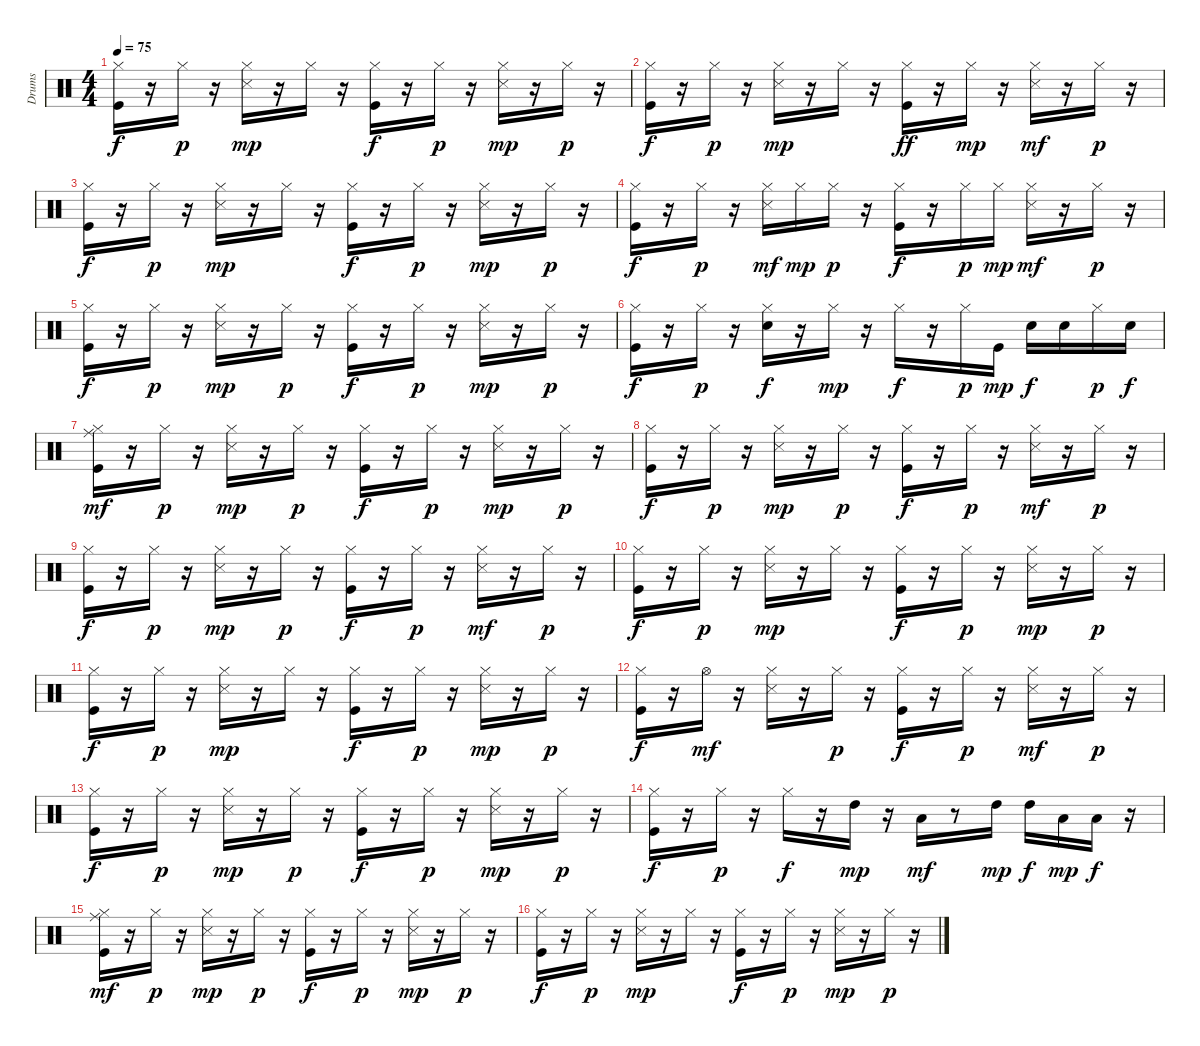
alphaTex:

\track ("Drums   " "Drums   ") {instrument percussion}
\staff {score}
\articulation defaults
\ts (4 4)
\tempo 75
\clef neutral
\ks c
("Kick (hit)" "Hi-Hat (closed)").16{dy f} r.16 "Hi-Hat (closed)".16{dy p} r.16 ("Hi-Hat (closed)" "Snare (side stick) 3").16{dy mp} r.16 "Hi-Hat (closed)".16 r.16 ("Kick (hit)" "Hi-Hat (closed)").16{dy f} r.16 "Hi-Hat (closed)".16{dy p} r.16 ("Hi-Hat (closed)" "Snare (side stick) 3").16{dy mp} r.16 "Hi-Hat (closed)".16{dy p} r.16 |
("Kick (hit)" "Hi-Hat (closed)").16{dy f} r.16 "Hi-Hat (closed)".16{dy p} r.16 ("Hi-Hat (closed)" "Snare (side stick) 3").16{dy mp} r.16 "Hi-Hat (closed)".16 r.16 ("Kick (hit)" "Hi-Hat (closed)").16{dy ff} r.16 "Hi-Hat (closed)".16{dy mp} r.16 ("Hi-Hat (closed)" "Snare (side stick) 3").16{dy mf} r.16 "Hi-Hat (closed)".16{dy p} r.16 |
("Kick (hit)" "Hi-Hat (closed)").16{dy f} r.16 "Hi-Hat (closed)".16{dy p} r.16 ("Hi-Hat (closed)" "Snare (side stick) 3").16{dy mp} r.16 "Hi-Hat (closed)".16 r.16 ("Kick (hit)" "Hi-Hat (closed)").16{dy f} r.16 "Hi-Hat (closed)".16{dy p} r.16 ("Hi-Hat (closed)" "Snare (side stick) 3").16{dy mp} r.16 "Hi-Hat (closed)".16{dy p} r.16 |
("Kick (hit)" "Hi-Hat (closed)").16{dy f} r.16 "Hi-Hat (closed)".16{dy p} r.16 ("Hi-Hat (closed)" "Snare (side stick) 3").16{dy mf} "Hi-Hat (closed)".16{dy mp} "Hi-Hat (closed)".16{dy p} r.16 ("Kick (hit)" "Hi-Hat (closed)").16{dy f} r.16 "Hi-Hat (closed)".16{dy p} "Hi-Hat (closed)".16{dy mp} ("Hi-Hat (closed)" "Snare (side stick) 3").16{dy mf} r.16 "Hi-Hat (closed)".16{dy p} r.16 |
("Kick (hit)" "Hi-Hat (closed)").16{dy f} r.16 "Hi-Hat (closed)".16{dy p} r.16 ("Hi-Hat (closed)" "Snare (side stick) 3").16{dy mp} r.16 "Hi-Hat (closed)".16{dy p} r.16 ("Kick (hit)" "Hi-Hat (closed)").16{dy f} r.16 "Hi-Hat (closed)".16{dy p} r.16 ("Hi-Hat (closed)" "Snare (side stick) 3").16{dy mp} r.16 "Hi-Hat (closed)".16{dy p} r.16 |
("Kick (hit)" "Hi-Hat (closed)").16{dy f} r.16 "Hi-Hat (closed)".16{dy p} r.16 ("Snare (hit) 2" "Hi-Hat (closed)").16{dy f} r.16 "Hi-Hat (closed)".16{dy mp} r.16 "Hi-Hat (closed)".16{dy f} r.16 "Hi-Hat (closed)".16{dy p} "Kick (hit)".16{dy mp} "Snare (hit) 2".16{dy f} "Snare (hit) 2".16 "Hi-Hat (closed)".16{dy p} "Snare (hit) 2".16{dy f} |
("Kick (hit)" "Hi-Hat (closed)" "Ride (middle)").16{dy mf} r.16 "Hi-Hat (closed)".16{dy p} r.16 ("Hi-Hat (closed)" "Snare (side stick) 3").16{dy mp} r.16 "Hi-Hat (closed)".16{dy p} r.16 ("Kick (hit)" "Hi-Hat (closed)").16{dy f} r.16 "Hi-Hat (closed)".16{dy p} r.16 ("Hi-Hat (closed)" "Snare (side stick) 3").16{dy mp} r.16 "Hi-Hat (closed)".16{dy p} r.16 |
("Kick (hit)" "Hi-Hat (closed)").16{dy f} r.16 "Hi-Hat (closed)".16{dy p} r.16 ("Hi-Hat (closed)" "Snare (side stick) 3").16{dy mp} r.16 "Hi-Hat (closed)".16{dy p} r.16 ("Kick (hit)" "Hi-Hat (closed)").16{dy f} r.16 "Hi-Hat (closed)".16{dy p} r.16 ("Hi-Hat (closed)" "Snare (side stick) 3").16{dy mf} r.16 "Hi-Hat (closed)".16{dy p} r.16 |
("Kick (hit)" "Hi-Hat (closed)").16{dy f} r.16 "Hi-Hat (closed)".16{dy p} r.16 ("Hi-Hat (closed)" "Snare (side stick) 3").16{dy mp} r.16 "Hi-Hat (closed)".16{dy p} r.16 ("Kick (hit)" "Hi-Hat (closed)").16{dy f} r.16 "Hi-Hat (closed)".16{dy p} r.16 ("Hi-Hat (closed)" "Snare (side stick) 3").16{dy mf} r.16 "Hi-Hat (closed)".16{dy p} r.16 |
("Kick (hit)" "Hi-Hat (closed)").16{dy f} r.16 "Hi-Hat (closed)".16{dy p} r.16 ("Hi-Hat (closed)" "Snare (side stick) 3").16{dy mp} r.16 "Hi-Hat (closed)".16 r.16 ("Kick (hit)" "Hi-Hat (closed)").16{dy f} r.16 "Hi-Hat (closed)".16{dy p} r.16 ("Hi-Hat (closed)" "Snare (side stick) 3").16{dy mp} r.16 "Hi-Hat (closed)".16{dy p} r.16 |
("Kick (hit)" "Hi-Hat (closed)").16{dy f} r.16 "Hi-Hat (closed)".16{dy p} r.16 ("Hi-Hat (closed)" "Snare (side stick) 3").16{dy mp} r.16 "Hi-Hat (closed)".16 r.16 ("Kick (hit)" "Hi-Hat (closed)").16{dy f} r.16 "Hi-Hat (closed)".16{dy p} r.16 ("Hi-Hat (closed)" "Snare (side stick) 3").16{dy mp} r.16 "Hi-Hat (closed)".16{dy p} r.16 |
("Kick (hit)" "Hi-Hat (closed)").16{dy f} r.16 "Hi-Hat (open)".16{dy mf} r.16 ("Hi-Hat (closed)" "Snare (side stick) 3").16 r.16 "Hi-Hat (closed)".16{dy p} r.16 ("Kick (hit)" "Hi-Hat (closed)").16{dy f} r.16 "Hi-Hat (closed)".16{dy p} r.16 ("Hi-Hat (closed)" "Snare (side stick) 3").16{dy mf} r.16 "Hi-Hat (closed)".16{dy p} r.16 |
("Kick (hit)" "Hi-Hat (closed)").16{dy f} r.16 "Hi-Hat (closed)".16{dy p} r.16 ("Hi-Hat (closed)" "Snare (side stick) 3").16{dy mp} r.16 "Hi-Hat (closed)".16{dy p} r.16 ("Kick (hit)" "Hi-Hat (closed)").16{dy f} r.16 "Hi-Hat (closed)".16{dy p} r.16 ("Hi-Hat (closed)" "Snare (side stick) 3").16{dy mp} r.16 "Hi-Hat (closed)".16{dy p} r.16 |
("Kick (hit)" "Hi-Hat (closed)").16{dy f} r.16 "Hi-Hat (closed)".16{dy p} r.16 "Hi-Hat (closed)".16{dy f} r.16 "High Tom (hit)".16{dy mp} r.16 "Low Tom (hit)".16{dy mf} r.8 "High Tom (hit)".16{dy mp} "High Tom (hit)".16{dy f} "Low Tom (hit)".16{dy mp} "Low Tom (hit)".16{dy f} r.16 |
("Kick (hit)" "Hi-Hat (closed)" "Ride (middle)").16{dy mf} r.16 "Hi-Hat (closed)".16{dy p} r.16 ("Hi-Hat (closed)" "Snare (side stick) 3").16{dy mp} r.16 "Hi-Hat (closed)".16{dy p} r.16 ("Kick (hit)" "Hi-Hat (closed)").16{dy f} r.16 "Hi-Hat (closed)".16{dy p} r.16 ("Hi-Hat (closed)" "Snare (side stick) 3").16{dy mp} r.16 "Hi-Hat (closed)".16{dy p} r.16 |
("Kick (hit)" "Hi-Hat (closed)").16{dy f} r.16 "Hi-Hat (closed)".16{dy p} r.16 ("Hi-Hat (closed)" "Snare (side stick) 3").16{dy mp} r.16 "Hi-Hat (closed)".16 r.16 ("Kick (hit)" "Hi-Hat (closed)").16{dy f} r.16 "Hi-Hat (closed)".16{dy p} r.16 ("Hi-Hat (closed)" "Snare (side stick) 3").16{dy mp} r.16 "Hi-Hat (closed)".16{dy p} r.16
